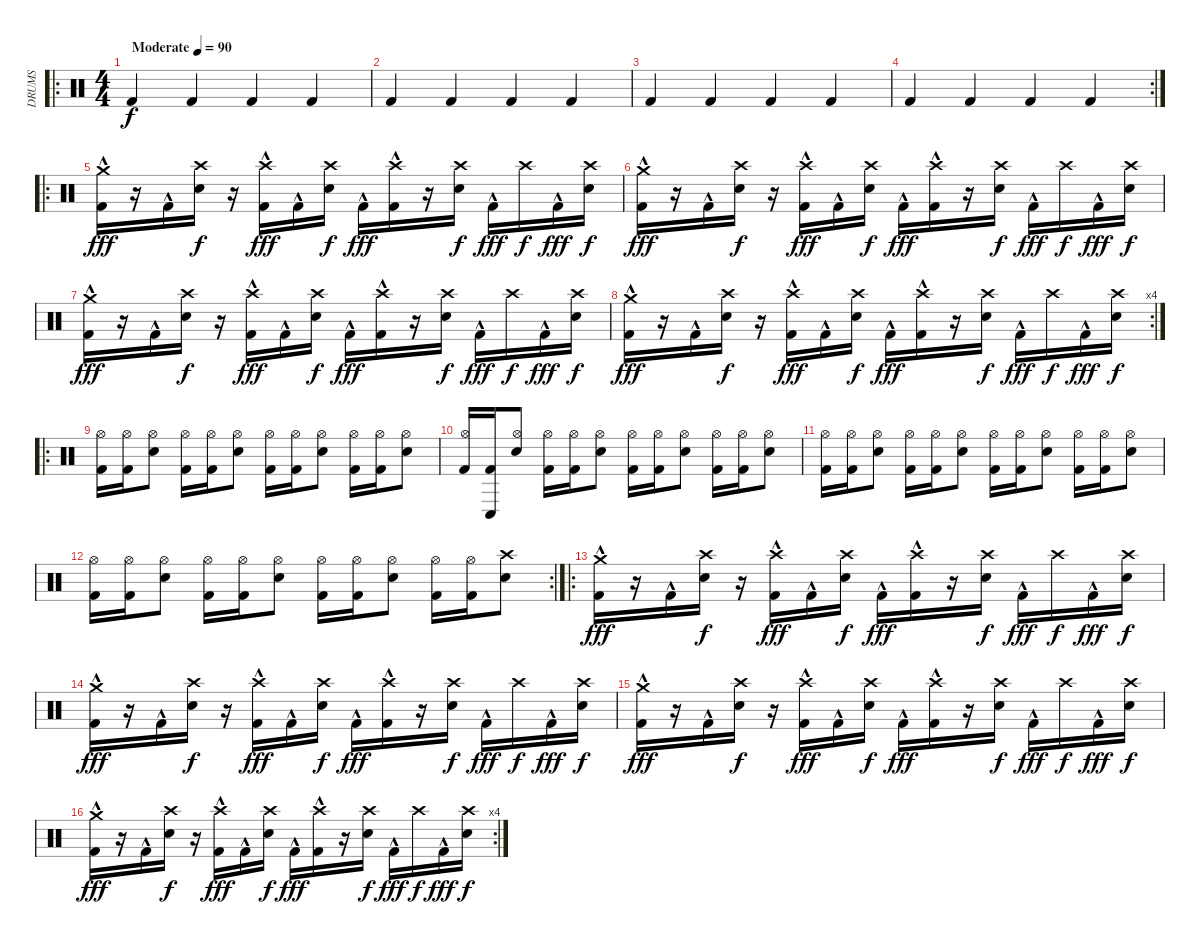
\track ("DRUMS" "DRUMS") {instrument percussion}
\staff {score}
\articulation defaults
\ro
\ts (4 4)
\tempo (90 "Moderate")
\clef neutral
\ks c "Kick (hit) 2".4{dy f} "Kick (hit) 2".4 "Kick (hit) 2".4 "Kick (hit) 2".4
|
"Kick (hit) 2".4 "Kick (hit) 2".4 "Kick (hit) 2".4 "Kick (hit) 2".4 |
"Kick (hit) 2".4 "Kick (hit) 2".4 "Kick (hit) 2".4 "Kick (hit) 2".4 |
\rc 2 "Kick (hit) 2".4 "Kick (hit) 2".4 "Kick (hit) 2".4 "Kick (hit) 2".4
|
\ro
("Crash medium (hit)" "Kick (hit) 2"{hac}).16{dy fff} r.16 "Kick (hit) 2"{hac}.16 ("Crash high (hit)" "Electric Snare (hit)").16{dy f} r.16 ("Crash high (hit)" "Kick (hit) 2"{hac}).16{dy fff} "Kick (hit) 2"{hac}.16 ("Crash high (hit)" "Electric Snare (hit)").16{dy f} "Kick (hit) 2"{hac}.16{dy fff} ("Crash high (hit)" "Kick (hit) 2"{hac}).16 r.16 ("Crash high (hit)" "Electric Snare (hit)").16{dy f} "Kick (hit) 2"{hac}.16{dy fff} "Crash high (hit)".16{dy f} "Kick (hit) 2"{hac}.16{dy fff} ("Crash high (hit)" "Electric Snare (hit)").16{dy f} |
("Crash medium (hit)" "Kick (hit) 2"{hac}).16{dy fff} r.16 "Kick (hit) 2"{hac}.16 ("Crash high (hit)" "Electric Snare (hit)").16{dy f} r.16 ("Crash high (hit)" "Kick (hit) 2"{hac}).16{dy fff} "Kick (hit) 2"{hac}.16 ("Crash high (hit)" "Electric Snare (hit)").16{dy f} "Kick (hit) 2"{hac}.16{dy fff} ("Crash high (hit)" "Kick (hit) 2"{hac}).16 r.16 ("Crash high (hit)" "Electric Snare (hit)").16{dy f} "Kick (hit) 2"{hac}.16{dy fff} "Crash high (hit)".16{dy f} "Kick (hit) 2"{hac}.16{dy fff} ("Crash high (hit)" "Electric Snare (hit)").16{dy f} |
("Crash medium (hit)" "Kick (hit) 2"{hac}).16{dy fff} r.16 "Kick (hit) 2"{hac}.16 ("Crash high (hit)" "Electric Snare (hit)").16{dy f} r.16 ("Crash high (hit)" "Kick (hit) 2"{hac}).16{dy fff} "Kick (hit) 2"{hac}.16 ("Crash high (hit)" "Electric Snare (hit)").16{dy f} "Kick (hit) 2"{hac}.16{dy fff} ("Crash high (hit)" "Kick (hit) 2"{hac}).16 r.16 ("Crash high (hit)" "Electric Snare (hit)").16{dy f} "Kick (hit) 2"{hac}.16{dy fff} "Crash high (hit)".16{dy f} "Kick (hit) 2"{hac}.16{dy fff} ("Crash high (hit)" "Electric Snare (hit)").16{dy f} |
\rc 4
("Crash medium (hit)" "Kick (hit) 2"{hac}).16{dy fff} r.16 "Kick (hit) 2"{hac}.16 ("Crash high (hit)" "Electric Snare (hit)").16{dy f} r.16 ("Crash high (hit)" "Kick (hit) 2"{hac}).16{dy fff} "Kick (hit) 2"{hac}.16 ("Crash high (hit)" "Electric Snare (hit)").16{dy f} "Kick (hit) 2"{hac}.16{dy fff} ("Crash high (hit)" "Kick (hit) 2"{hac}).16 r.16 ("Crash high (hit)" "Electric Snare (hit)").16{dy f} "Kick (hit) 2"{hac}.16{dy fff} "Crash high (hit)".16{dy f} "Kick (hit) 2"{hac}.16{dy fff} ("Crash high (hit)" "Electric Snare (hit)").16{dy f} |
\ro
("Hi-Hat (open)" "Kick (hit) 2").16 ("Hi-Hat (open)" "Kick (hit) 2").16 ("Hi-Hat (open)" "Electric Snare (hit)").8 ("Hi-Hat (open)" "Kick (hit) 2").16 ("Hi-Hat (open)" "Kick (hit) 2").16 ("Hi-Hat (open)" "Electric Snare (hit)").8 ("Hi-Hat (open)" "Kick (hit) 2").16 ("Hi-Hat (open)" "Kick (hit) 2").16 ("Hi-Hat (open)" "Electric Snare (hit)").8 ("Hi-Hat (open)" "Kick (hit) 2").16 ("Hi-Hat (open)" "Kick (hit) 2").16 ("Hi-Hat (open)" "Electric Snare (hit)").8 |
("Hi-Hat (open)" "Kick (hit) 2").16 ("Conga low (hit)" "Kick (hit) 2").16 ("Hi-Hat (open)" "Electric Snare (hit)").8 ("Hi-Hat (open)" "Kick (hit) 2").16 ("Hi-Hat (open)" "Kick (hit) 2").16 ("Hi-Hat (open)" "Electric Snare (hit)").8 ("Hi-Hat (open)" "Kick (hit) 2").16 ("Hi-Hat (open)" "Kick (hit) 2").16 ("Hi-Hat (open)" "Electric Snare (hit)").8 ("Hi-Hat (open)" "Kick (hit) 2").16 ("Hi-Hat (open)" "Kick (hit) 2").16 ("Hi-Hat (open)" "Electric Snare (hit)").8 |
("Hi-Hat (open)" "Kick (hit) 2").16 ("Hi-Hat (open)" "Kick (hit) 2").16 ("Hi-Hat (open)" "Electric Snare (hit)").8 ("Hi-Hat (open)" "Kick (hit) 2").16 ("Hi-Hat (open)" "Kick (hit) 2").16 ("Hi-Hat (open)" "Electric Snare (hit)").8 ("Hi-Hat (open)" "Kick (hit) 2").16 ("Hi-Hat (open)" "Kick (hit) 2").16 ("Hi-Hat (open)" "Electric Snare (hit)").8 ("Hi-Hat (open)" "Kick (hit) 2").16 ("Hi-Hat (open)" "Kick (hit) 2").16 ("Hi-Hat (open)" "Electric Snare (hit)").8 |
\rc 2
("Hi-Hat (open)" "Kick (hit) 2").16 ("Hi-Hat (open)" "Kick (hit) 2").16 ("Hi-Hat (open)" "Electric Snare (hit)").8 ("Hi-Hat (open)" "Kick (hit) 2").16 ("Hi-Hat (open)" "Kick (hit) 2").16 ("Hi-Hat (open)" "Electric Snare (hit)").8 ("Hi-Hat (open)" "Kick (hit) 2").16 ("Hi-Hat (open)" "Kick (hit) 2").16 ("Hi-Hat (open)" "Electric Snare (hit)").8 ("Hi-Hat (open)" "Kick (hit) 2").16 ("Hi-Hat (open)" "Kick (hit) 2").16 ("Crash high (hit)" "Electric Snare (hit)").8 |
\ro
("Crash medium (hit)" "Kick (hit) 2"{hac}).16{dy fff} r.16 "Kick (hit) 2"{hac}.16 ("Crash high (hit)" "Electric Snare (hit)").16{dy f} r.16 ("Crash high (hit)" "Kick (hit) 2"{hac}).16{dy fff} "Kick (hit) 2"{hac}.16 ("Crash high (hit)" "Electric Snare (hit)").16{dy f} "Kick (hit) 2"{hac}.16{dy fff} ("Crash high (hit)" "Kick (hit) 2"{hac}).16 r.16 ("Crash high (hit)" "Electric Snare (hit)").16{dy f} "Kick (hit) 2"{hac}.16{dy fff} "Crash high (hit)".16{dy f} "Kick (hit) 2"{hac}.16{dy fff} ("Crash high (hit)" "Electric Snare (hit)").16{dy f} |
("Crash medium (hit)" "Kick (hit) 2"{hac}).16{dy fff} r.16 "Kick (hit) 2"{hac}.16 ("Crash high (hit)" "Electric Snare (hit)").16{dy f} r.16 ("Crash high (hit)" "Kick (hit) 2"{hac}).16{dy fff} "Kick (hit) 2"{hac}.16 ("Crash high (hit)" "Electric Snare (hit)").16{dy f} "Kick (hit) 2"{hac}.16{dy fff} ("Crash high (hit)" "Kick (hit) 2"{hac}).16 r.16 ("Crash high (hit)" "Electric Snare (hit)").16{dy f} "Kick (hit) 2"{hac}.16{dy fff} "Crash high (hit)".16{dy f} "Kick (hit) 2"{hac}.16{dy fff} ("Crash high (hit)" "Electric Snare (hit)").16{dy f} |
("Crash medium (hit)" "Kick (hit) 2"{hac}).16{dy fff} r.16 "Kick (hit) 2"{hac}.16 ("Crash high (hit)" "Electric Snare (hit)").16{dy f} r.16 ("Crash high (hit)" "Kick (hit) 2"{hac}).16{dy fff} "Kick (hit) 2"{hac}.16 ("Crash high (hit)" "Electric Snare (hit)").16{dy f} "Kick (hit) 2"{hac}.16{dy fff} ("Crash high (hit)" "Kick (hit) 2"{hac}).16 r.16 ("Crash high (hit)" "Electric Snare (hit)").16{dy f} "Kick (hit) 2"{hac}.16{dy fff} "Crash high (hit)".16{dy f} "Kick (hit) 2"{hac}.16{dy fff} ("Crash high (hit)" "Electric Snare (hit)").16{dy f} |
\rc 4
("Crash medium (hit)" "Kick (hit) 2"{hac}).16{dy fff} r.16 "Kick (hit) 2"{hac}.16 ("Crash high (hit)" "Electric Snare (hit)").16{dy f} r.16 ("Crash high (hit)" "Kick (hit) 2"{hac}).16{dy fff} "Kick (hit) 2"{hac}.16 ("Crash high (hit)" "Electric Snare (hit)").16{dy f} "Kick (hit) 2"{hac}.16{dy fff} ("Crash high (hit)" "Kick (hit) 2"{hac}).16 r.16 ("Crash high (hit)" "Electric Snare (hit)").16{dy f} "Kick (hit) 2"{hac}.16{dy fff} "Crash high (hit)".16{dy f} "Kick (hit) 2"{hac}.16{dy fff} ("Crash high (hit)" "Electric Snare (hit)").16{dy f}
